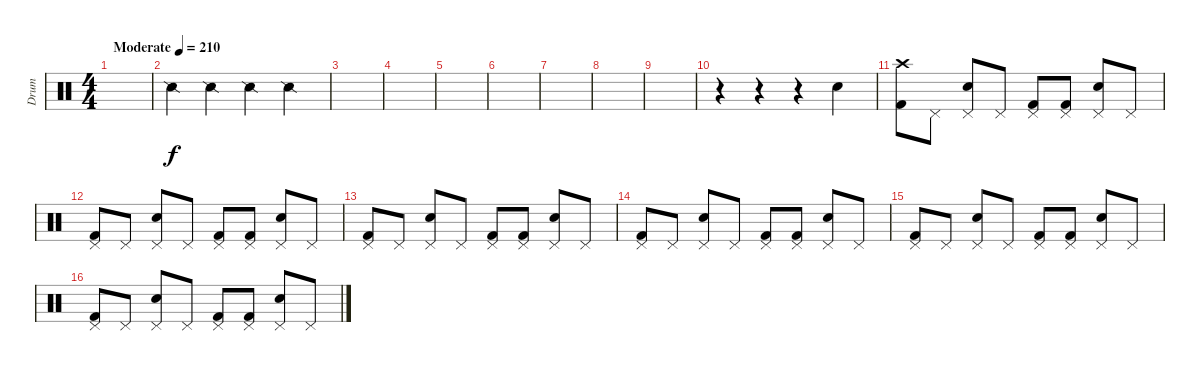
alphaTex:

\track ("Drum" "Drum") {instrument percussion}
\staff {score}
\articulation defaults
\ts (4 4)
\tempo (210 "Moderate")
\clef neutral
\ks c
|
"Snare (side stick) 2".4 "Snare (side stick) 2".4 "Snare (side stick) 2".4 "Snare (side stick) 2".4 |
|
|
|
|
|
|
|
r.4 r.4 r.4 "Snare (hit) 2".4 |
("Crash high (hit)" "Kick (hit) 2").8 "Pedal Hi-Hat (hit)".8 ("Pedal Hi-Hat (hit)" "Snare (hit) 2").8 "Pedal Hi-Hat (hit)".8 ("Pedal Hi-Hat (hit)" "Kick (hit) 2").8 ("Pedal Hi-Hat (hit)" "Kick (hit) 2").8 ("Pedal Hi-Hat (hit)" "Snare (hit) 2").8 "Pedal Hi-Hat (hit)".8 |
("Pedal Hi-Hat (hit)" "Kick (hit) 2").8 "Pedal Hi-Hat (hit)".8 ("Pedal Hi-Hat (hit)" "Snare (hit) 2").8 "Pedal Hi-Hat (hit)".8 ("Pedal Hi-Hat (hit)" "Kick (hit) 2").8 ("Pedal Hi-Hat (hit)" "Kick (hit) 2").8 ("Pedal Hi-Hat (hit)" "Snare (hit) 2").8 "Pedal Hi-Hat (hit)".8 |
("Pedal Hi-Hat (hit)" "Kick (hit) 2").8 "Pedal Hi-Hat (hit)".8 ("Pedal Hi-Hat (hit)" "Snare (hit) 2").8 "Pedal Hi-Hat (hit)".8 ("Pedal Hi-Hat (hit)" "Kick (hit) 2").8 ("Pedal Hi-Hat (hit)" "Kick (hit) 2").8 ("Pedal Hi-Hat (hit)" "Snare (hit) 2").8 "Pedal Hi-Hat (hit)".8 |
("Pedal Hi-Hat (hit)" "Kick (hit) 2").8 "Pedal Hi-Hat (hit)".8 ("Pedal Hi-Hat (hit)" "Snare (hit) 2").8 "Pedal Hi-Hat (hit)".8 ("Pedal Hi-Hat (hit)" "Kick (hit) 2").8 ("Pedal Hi-Hat (hit)" "Kick (hit) 2").8 ("Pedal Hi-Hat (hit)" "Snare (hit) 2").8 "Pedal Hi-Hat (hit)".8 |
("Pedal Hi-Hat (hit)" "Kick (hit) 2").8 "Pedal Hi-Hat (hit)".8 ("Pedal Hi-Hat (hit)" "Snare (hit) 2").8 "Pedal Hi-Hat (hit)".8 ("Pedal Hi-Hat (hit)" "Kick (hit) 2").8 ("Pedal Hi-Hat (hit)" "Kick (hit) 2").8 ("Pedal Hi-Hat (hit)" "Snare (hit) 2").8 "Pedal Hi-Hat (hit)".8 |
("Pedal Hi-Hat (hit)" "Kick (hit) 2").8 "Pedal Hi-Hat (hit)".8 ("Pedal Hi-Hat (hit)" "Snare (hit) 2").8 "Pedal Hi-Hat (hit)".8 ("Pedal Hi-Hat (hit)" "Kick (hit) 2").8 ("Pedal Hi-Hat (hit)" "Kick (hit) 2").8 ("Pedal Hi-Hat (hit)" "Snare (hit) 2").8 "Pedal Hi-Hat (hit)".8
